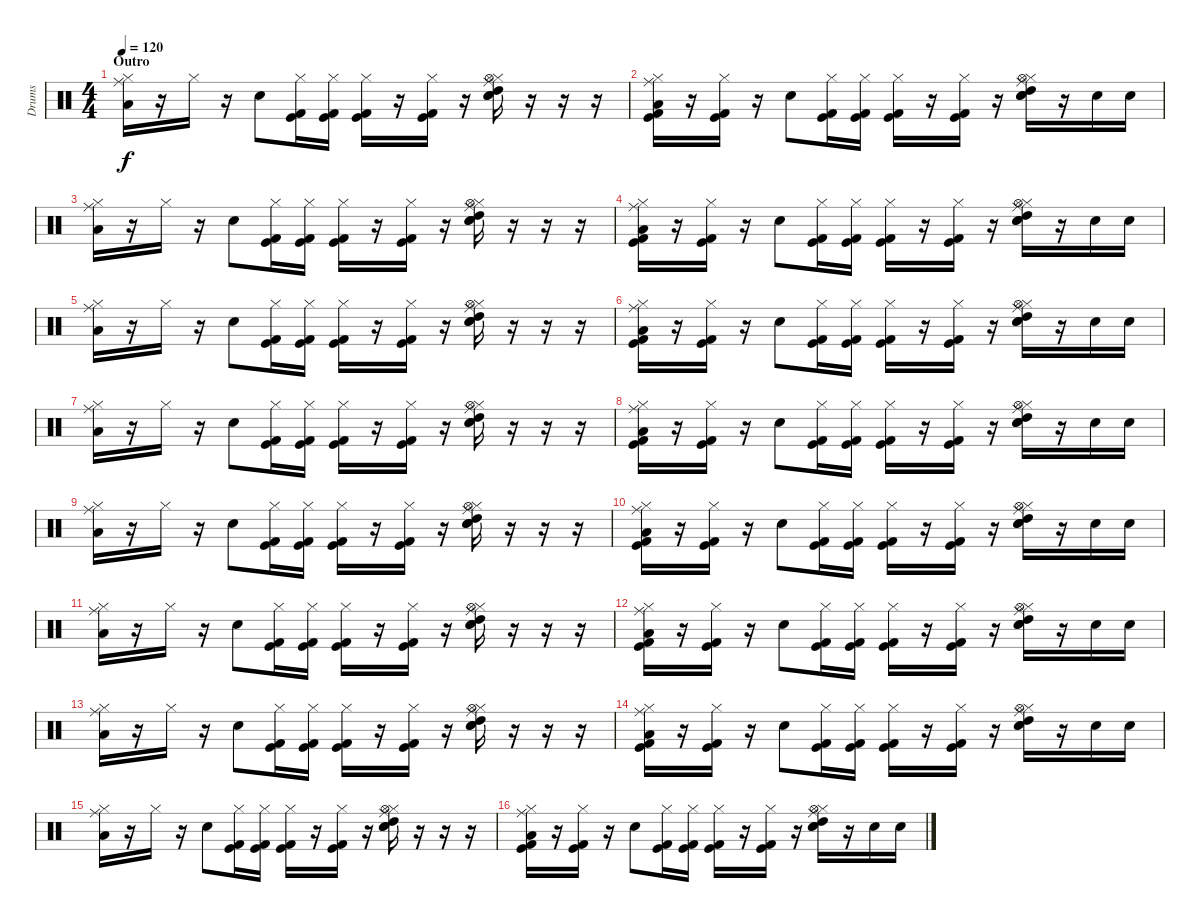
\track ("Drums" "Drums") {instrument percussion}
\staff {score}
\articulation defaults
\ts (4 4)
\section ("" "Outro")
\tempo 120
\clef neutral
\ks c
("Hi-Hat (closed)" "Ride (middle)" "Low Tom (hit)").16{dy f} r.16 "Hi-Hat (closed)".16 r.16 "Snare (hit) 2".8 ("Kick (hit)" "Hi-Hat (closed)" "Kick (hit) 2").16 ("Kick (hit)" "Hi-Hat (closed)" "Kick (hit) 2").16 ("Kick (hit)" "Hi-Hat (closed)" "Kick (hit) 2").16 r.16 ("Kick (hit)" "Hi-Hat (closed)" "Kick (hit) 2").16 r.16 ("Snare (hit) 2" "Ride (middle)" "Hi-Hat (closed)" "Hi-Hat (open)" "High Tom (hit)" "Electric Snare (hit)").16 r.16 r.16 r.16 |
("Kick (hit)" "Hi-Hat (closed)" "Ride (middle)" "Low Tom (hit)" "Kick (hit) 2").16 r.16 ("Kick (hit)" "Hi-Hat (closed)" "Kick (hit) 2").16 r.16 "Snare (hit) 2".8 ("Kick (hit)" "Hi-Hat (closed)" "Kick (hit) 2").16 ("Kick (hit)" "Hi-Hat (closed)" "Kick (hit) 2").16 ("Kick (hit)" "Hi-Hat (closed)" "Kick (hit) 2").16 r.16 ("Kick (hit)" "Hi-Hat (closed)" "Kick (hit) 2").16 r.16 ("Snare (hit) 2" "Ride (middle)" "Hi-Hat (closed)" "Hi-Hat (open)" "High Tom (hit)" "Electric Snare (hit)").16 r.16 "Electric Snare (hit)".16 "Electric Snare (hit)".16 |
("Hi-Hat (closed)" "Ride (middle)" "Low Tom (hit)").16 r.16 "Hi-Hat (closed)".16 r.16 "Snare (hit) 2".8 ("Kick (hit)" "Hi-Hat (closed)" "Kick (hit) 2").16 ("Kick (hit)" "Hi-Hat (closed)" "Kick (hit) 2").16 ("Kick (hit)" "Hi-Hat (closed)" "Kick (hit) 2").16 r.16 ("Kick (hit)" "Hi-Hat (closed)" "Kick (hit) 2").16 r.16 ("Snare (hit) 2" "Ride (middle)" "Hi-Hat (closed)" "Hi-Hat (open)" "High Tom (hit)" "Electric Snare (hit)").16 r.16 r.16 r.16 |
("Kick (hit)" "Hi-Hat (closed)" "Ride (middle)" "Low Tom (hit)" "Kick (hit) 2").16 r.16 ("Kick (hit)" "Hi-Hat (closed)" "Kick (hit) 2").16 r.16 "Snare (hit) 2".8 ("Kick (hit)" "Hi-Hat (closed)" "Kick (hit) 2").16 ("Kick (hit)" "Hi-Hat (closed)" "Kick (hit) 2").16 ("Kick (hit)" "Hi-Hat (closed)" "Kick (hit) 2").16 r.16 ("Kick (hit)" "Hi-Hat (closed)" "Kick (hit) 2").16 r.16 ("Snare (hit) 2" "Ride (middle)" "Hi-Hat (closed)" "Hi-Hat (open)" "High Tom (hit)" "Electric Snare (hit)").16 r.16 "Electric Snare (hit)".16 "Electric Snare (hit)".16 |
("Hi-Hat (closed)" "Ride (middle)" "Low Tom (hit)").16 r.16 "Hi-Hat (closed)".16 r.16 "Snare (hit) 2".8 ("Kick (hit)" "Hi-Hat (closed)" "Kick (hit) 2").16 ("Kick (hit)" "Hi-Hat (closed)" "Kick (hit) 2").16 ("Kick (hit)" "Hi-Hat (closed)" "Kick (hit) 2").16 r.16 ("Kick (hit)" "Hi-Hat (closed)" "Kick (hit) 2").16 r.16 ("Snare (hit) 2" "Ride (middle)" "Hi-Hat (closed)" "Hi-Hat (open)" "High Tom (hit)" "Electric Snare (hit)").16 r.16 r.16 r.16 |
("Kick (hit)" "Hi-Hat (closed)" "Ride (middle)" "Low Tom (hit)" "Kick (hit) 2").16 r.16 ("Kick (hit)" "Hi-Hat (closed)" "Kick (hit) 2").16 r.16 "Snare (hit) 2".8 ("Kick (hit)" "Hi-Hat (closed)" "Kick (hit) 2").16 ("Kick (hit)" "Hi-Hat (closed)" "Kick (hit) 2").16 ("Kick (hit)" "Hi-Hat (closed)" "Kick (hit) 2").16 r.16 ("Kick (hit)" "Hi-Hat (closed)" "Kick (hit) 2").16 r.16 ("Snare (hit) 2" "Ride (middle)" "Hi-Hat (closed)" "Hi-Hat (open)" "High Tom (hit)" "Electric Snare (hit)").16 r.16 "Electric Snare (hit)".16 "Electric Snare (hit)".16 |
("Hi-Hat (closed)" "Ride (middle)" "Low Tom (hit)").16 r.16 "Hi-Hat (closed)".16 r.16 "Snare (hit) 2".8 ("Kick (hit)" "Hi-Hat (closed)" "Kick (hit) 2").16 ("Kick (hit)" "Hi-Hat (closed)" "Kick (hit) 2").16 ("Kick (hit)" "Hi-Hat (closed)" "Kick (hit) 2").16 r.16 ("Kick (hit)" "Hi-Hat (closed)" "Kick (hit) 2").16 r.16 ("Snare (hit) 2" "Ride (middle)" "Hi-Hat (closed)" "Hi-Hat (open)" "High Tom (hit)" "Electric Snare (hit)").16 r.16 r.16 r.16 |
("Kick (hit)" "Hi-Hat (closed)" "Ride (middle)" "Low Tom (hit)" "Kick (hit) 2").16 r.16 ("Kick (hit)" "Hi-Hat (closed)" "Kick (hit) 2").16 r.16 "Snare (hit) 2".8 ("Kick (hit)" "Hi-Hat (closed)" "Kick (hit) 2").16 ("Kick (hit)" "Hi-Hat (closed)" "Kick (hit) 2").16 ("Kick (hit)" "Hi-Hat (closed)" "Kick (hit) 2").16 r.16 ("Kick (hit)" "Hi-Hat (closed)" "Kick (hit) 2").16 r.16 ("Snare (hit) 2" "Ride (middle)" "Hi-Hat (closed)" "Hi-Hat (open)" "High Tom (hit)" "Electric Snare (hit)").16 r.16 "Electric Snare (hit)".16 "Electric Snare (hit)".16 |
("Hi-Hat (closed)" "Ride (middle)" "Low Tom (hit)").16 r.16 "Hi-Hat (closed)".16 r.16 "Snare (hit) 2".8 ("Kick (hit)" "Hi-Hat (closed)" "Kick (hit) 2").16 ("Kick (hit)" "Hi-Hat (closed)" "Kick (hit) 2").16 ("Kick (hit)" "Hi-Hat (closed)" "Kick (hit) 2").16 r.16 ("Kick (hit)" "Hi-Hat (closed)" "Kick (hit) 2").16 r.16 ("Snare (hit) 2" "Ride (middle)" "Hi-Hat (closed)" "Hi-Hat (open)" "High Tom (hit)" "Electric Snare (hit)").16 r.16 r.16 r.16 |
("Kick (hit)" "Hi-Hat (closed)" "Ride (middle)" "Low Tom (hit)" "Kick (hit) 2").16 r.16 ("Kick (hit)" "Hi-Hat (closed)" "Kick (hit) 2").16 r.16 "Snare (hit) 2".8 ("Kick (hit)" "Hi-Hat (closed)" "Kick (hit) 2").16 ("Kick (hit)" "Hi-Hat (closed)" "Kick (hit) 2").16 ("Kick (hit)" "Hi-Hat (closed)" "Kick (hit) 2").16 r.16 ("Kick (hit)" "Hi-Hat (closed)" "Kick (hit) 2").16 r.16 ("Snare (hit) 2" "Ride (middle)" "Hi-Hat (closed)" "Hi-Hat (open)" "High Tom (hit)" "Electric Snare (hit)").16 r.16 "Electric Snare (hit)".16 "Electric Snare (hit)".16 |
("Hi-Hat (closed)" "Ride (middle)" "Low Tom (hit)").16 r.16 "Hi-Hat (closed)".16 r.16 "Snare (hit) 2".8 ("Kick (hit)" "Hi-Hat (closed)" "Kick (hit) 2").16 ("Kick (hit)" "Hi-Hat (closed)" "Kick (hit) 2").16 ("Kick (hit)" "Hi-Hat (closed)" "Kick (hit) 2").16 r.16 ("Kick (hit)" "Hi-Hat (closed)" "Kick (hit) 2").16 r.16 ("Snare (hit) 2" "Ride (middle)" "Hi-Hat (closed)" "Hi-Hat (open)" "High Tom (hit)" "Electric Snare (hit)").16 r.16 r.16 r.16 |
("Kick (hit)" "Hi-Hat (closed)" "Ride (middle)" "Low Tom (hit)" "Kick (hit) 2").16 r.16 ("Kick (hit)" "Hi-Hat (closed)" "Kick (hit) 2").16 r.16 "Snare (hit) 2".8 ("Kick (hit)" "Hi-Hat (closed)" "Kick (hit) 2").16 ("Kick (hit)" "Hi-Hat (closed)" "Kick (hit) 2").16 ("Kick (hit)" "Hi-Hat (closed)" "Kick (hit) 2").16 r.16 ("Kick (hit)" "Hi-Hat (closed)" "Kick (hit) 2").16 r.16 ("Snare (hit) 2" "Ride (middle)" "Hi-Hat (closed)" "Hi-Hat (open)" "High Tom (hit)" "Electric Snare (hit)").16 r.16 "Electric Snare (hit)".16 "Electric Snare (hit)".16 |
("Hi-Hat (closed)" "Ride (middle)" "Low Tom (hit)").16 r.16 "Hi-Hat (closed)".16 r.16 "Snare (hit) 2".8 ("Kick (hit)" "Hi-Hat (closed)" "Kick (hit) 2").16 ("Kick (hit)" "Hi-Hat (closed)" "Kick (hit) 2").16 ("Kick (hit)" "Hi-Hat (closed)" "Kick (hit) 2").16 r.16 ("Kick (hit)" "Hi-Hat (closed)" "Kick (hit) 2").16 r.16 ("Snare (hit) 2" "Ride (middle)" "Hi-Hat (closed)" "Hi-Hat (open)" "High Tom (hit)" "Electric Snare (hit)").16 r.16 r.16 r.16 |
("Kick (hit)" "Hi-Hat (closed)" "Ride (middle)" "Low Tom (hit)" "Kick (hit) 2").16 r.16 ("Kick (hit)" "Hi-Hat (closed)" "Kick (hit) 2").16 r.16 "Snare (hit) 2".8 ("Kick (hit)" "Hi-Hat (closed)" "Kick (hit) 2").16 ("Kick (hit)" "Hi-Hat (closed)" "Kick (hit) 2").16 ("Kick (hit)" "Hi-Hat (closed)" "Kick (hit) 2").16 r.16 ("Kick (hit)" "Hi-Hat (closed)" "Kick (hit) 2").16 r.16 ("Snare (hit) 2" "Ride (middle)" "Hi-Hat (closed)" "Hi-Hat (open)" "High Tom (hit)" "Electric Snare (hit)").16 r.16 "Electric Snare (hit)".16 "Electric Snare (hit)".16 |
("Hi-Hat (closed)" "Ride (middle)" "Low Tom (hit)").16 r.16 "Hi-Hat (closed)".16 r.16 "Snare (hit) 2".8 ("Kick (hit)" "Hi-Hat (closed)" "Kick (hit) 2").16 ("Kick (hit)" "Hi-Hat (closed)" "Kick (hit) 2").16 ("Kick (hit)" "Hi-Hat (closed)" "Kick (hit) 2").16 r.16 ("Kick (hit)" "Hi-Hat (closed)" "Kick (hit) 2").16 r.16 ("Snare (hit) 2" "Ride (middle)" "Hi-Hat (closed)" "Hi-Hat (open)" "High Tom (hit)" "Electric Snare (hit)").16 r.16 r.16 r.16 |
("Kick (hit)" "Hi-Hat (closed)" "Ride (middle)" "Low Tom (hit)" "Kick (hit) 2").16 r.16 ("Kick (hit)" "Hi-Hat (closed)" "Kick (hit) 2").16 r.16 "Snare (hit) 2".8 ("Kick (hit)" "Hi-Hat (closed)" "Kick (hit) 2").16 ("Kick (hit)" "Hi-Hat (closed)" "Kick (hit) 2").16 ("Kick (hit)" "Hi-Hat (closed)" "Kick (hit) 2").16 r.16 ("Kick (hit)" "Hi-Hat (closed)" "Kick (hit) 2").16 r.16 ("Snare (hit) 2" "Ride (middle)" "Hi-Hat (closed)" "Hi-Hat (open)" "High Tom (hit)" "Electric Snare (hit)").16 r.16 "Electric Snare (hit)".16 "Electric Snare (hit)".16
